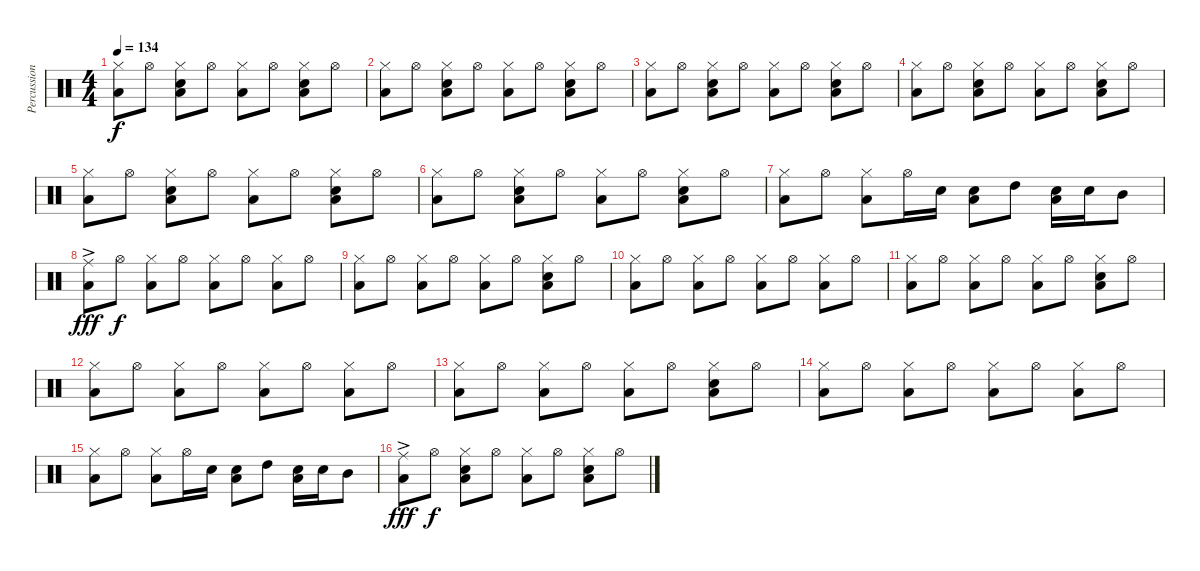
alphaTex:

\track ("Percussion" "Percussion") {instrument percussion}
\staff {score}
\articulation defaults
\ts (4 4)
\tempo 134
\clef neutral
\ks c
("Hi-Hat (closed)" "Low Floor Tom (hit)").8{dy f} "Hi-Hat (open)".8 ("Hi-Hat (closed)" "Snare (hit) 2" "Low Floor Tom (hit)").8 "Hi-Hat (open)".8 ("Hi-Hat (closed)" "Low Floor Tom (hit)").8 "Hi-Hat (open)".8 ("Hi-Hat (closed)" "Snare (hit) 2" "Low Floor Tom (hit)").8 "Hi-Hat (open)".8 |
("Hi-Hat (closed)" "Low Floor Tom (hit)").8 "Hi-Hat (open)".8 ("Hi-Hat (closed)" "Snare (hit) 2" "Low Floor Tom (hit)").8 "Hi-Hat (open)".8 ("Hi-Hat (closed)" "Low Floor Tom (hit)").8 "Hi-Hat (open)".8 ("Hi-Hat (closed)" "Snare (hit) 2" "Low Floor Tom (hit)").8 "Hi-Hat (open)".8 |
("Hi-Hat (closed)" "Low Floor Tom (hit)").8 "Hi-Hat (open)".8 ("Hi-Hat (closed)" "Snare (hit) 2" "Low Floor Tom (hit)").8 "Hi-Hat (open)".8 ("Hi-Hat (closed)" "Low Floor Tom (hit)").8 "Hi-Hat (open)".8 ("Hi-Hat (closed)" "Snare (hit) 2" "Low Floor Tom (hit)").8 "Hi-Hat (open)".8 |
("Hi-Hat (closed)" "Low Floor Tom (hit)").8 "Hi-Hat (open)".8 ("Hi-Hat (closed)" "Snare (hit) 2" "Low Floor Tom (hit)").8 "Hi-Hat (open)".8 ("Hi-Hat (closed)" "Low Floor Tom (hit)").8 "Hi-Hat (open)".8 ("Hi-Hat (closed)" "Snare (hit) 2" "Low Floor Tom (hit)").8 "Hi-Hat (open)".8 |
("Hi-Hat (closed)" "Low Floor Tom (hit)").8 "Hi-Hat (open)".8 ("Hi-Hat (closed)" "Snare (hit) 2" "Low Floor Tom (hit)").8 "Hi-Hat (open)".8 ("Hi-Hat (closed)" "Low Floor Tom (hit)").8 "Hi-Hat (open)".8 ("Hi-Hat (closed)" "Snare (hit) 2" "Low Floor Tom (hit)").8 "Hi-Hat (open)".8 |
("Hi-Hat (closed)" "Low Floor Tom (hit)").8 "Hi-Hat (open)".8 ("Hi-Hat (closed)" "Snare (hit) 2" "Low Floor Tom (hit)").8 "Hi-Hat (open)".8 ("Hi-Hat (closed)" "Low Floor Tom (hit)").8 "Hi-Hat (open)".8 ("Hi-Hat (closed)" "Snare (hit) 2" "Low Floor Tom (hit)").8 "Hi-Hat (open)".8 |
("Hi-Hat (closed)" "Low Floor Tom (hit)").8 "Hi-Hat (open)".8 ("Hi-Hat (closed)" "Low Floor Tom (hit)").8 "Hi-Hat (open)".16 "Snare (hit) 2".16 ("Snare (hit) 2" "Low Floor Tom (hit)").8 "High Tom (hit)".8 ("Snare (hit) 2" "Low Floor Tom (hit)").16 "Snare (hit) 2".16 "Mid Tom (hit)".8 |
("Ride (middle)"{ac} "Low Floor Tom (hit)").8{dy fff} "Hi-Hat (open)".8{dy f} ("Hi-Hat (closed)" "Low Floor Tom (hit)").8 "Hi-Hat (open)".8 ("Hi-Hat (closed)" "Low Floor Tom (hit)").8 "Hi-Hat (open)".8 ("Hi-Hat (closed)" "Low Floor Tom (hit)").8 "Hi-Hat (open)".8 |
("Hi-Hat (closed)" "Low Floor Tom (hit)").8 "Hi-Hat (open)".8 ("Hi-Hat (closed)" "Low Floor Tom (hit)").8 "Hi-Hat (open)".8 ("Hi-Hat (closed)" "Low Floor Tom (hit)").8 "Hi-Hat (open)".8 ("Hi-Hat (closed)" "Snare (hit) 2" "Low Floor Tom (hit)").8 "Hi-Hat (open)".8 |
("Hi-Hat (closed)" "Low Floor Tom (hit)").8 "Hi-Hat (open)".8 ("Hi-Hat (closed)" "Low Floor Tom (hit)").8 "Hi-Hat (open)".8 ("Hi-Hat (closed)" "Low Floor Tom (hit)").8 "Hi-Hat (open)".8 ("Hi-Hat (closed)" "Low Floor Tom (hit)").8 "Hi-Hat (open)".8 |
("Hi-Hat (closed)" "Low Floor Tom (hit)").8 "Hi-Hat (open)".8 ("Hi-Hat (closed)" "Low Floor Tom (hit)").8 "Hi-Hat (open)".8 ("Hi-Hat (closed)" "Low Floor Tom (hit)").8 "Hi-Hat (open)".8 ("Hi-Hat (closed)" "Snare (hit) 2" "Low Floor Tom (hit)").8 "Hi-Hat (open)".8 |
("Hi-Hat (closed)" "Low Floor Tom (hit)").8 "Hi-Hat (open)".8 ("Hi-Hat (closed)" "Low Floor Tom (hit)").8 "Hi-Hat (open)".8 ("Hi-Hat (closed)" "Low Floor Tom (hit)").8 "Hi-Hat (open)".8 ("Hi-Hat (closed)" "Low Floor Tom (hit)").8 "Hi-Hat (open)".8 |
("Hi-Hat (closed)" "Low Floor Tom (hit)").8 "Hi-Hat (open)".8 ("Hi-Hat (closed)" "Low Floor Tom (hit)").8 "Hi-Hat (open)".8 ("Hi-Hat (closed)" "Low Floor Tom (hit)").8 "Hi-Hat (open)".8 ("Hi-Hat (closed)" "Snare (hit) 2" "Low Floor Tom (hit)").8 "Hi-Hat (open)".8 |
("Hi-Hat (closed)" "Low Floor Tom (hit)").8 "Hi-Hat (open)".8 ("Hi-Hat (closed)" "Low Floor Tom (hit)").8 "Hi-Hat (open)".8 ("Hi-Hat (closed)" "Low Floor Tom (hit)").8 "Hi-Hat (open)".8 ("Hi-Hat (closed)" "Low Floor Tom (hit)").8 "Hi-Hat (open)".8 |
("Hi-Hat (closed)" "Low Floor Tom (hit)").8 "Hi-Hat (open)".8 ("Hi-Hat (closed)" "Low Floor Tom (hit)").8 "Hi-Hat (open)".16 "Snare (hit) 2".16 ("Snare (hit) 2" "Low Floor Tom (hit)").8 "High Tom (hit)".8 ("Snare (hit) 2" "Low Floor Tom (hit)").16 "Snare (hit) 2".16 "Mid Tom (hit)".8 |
("Ride (middle)"{ac} "Low Floor Tom (hit)").8{dy fff} "Hi-Hat (open)".8{dy f} ("Hi-Hat (closed)" "Snare (hit) 2" "Low Floor Tom (hit)").8 "Hi-Hat (open)".8 ("Hi-Hat (closed)" "Low Floor Tom (hit)").8 "Hi-Hat (open)".8 ("Hi-Hat (closed)" "Snare (hit) 2" "Low Floor Tom (hit)").8 "Hi-Hat (open)".8
